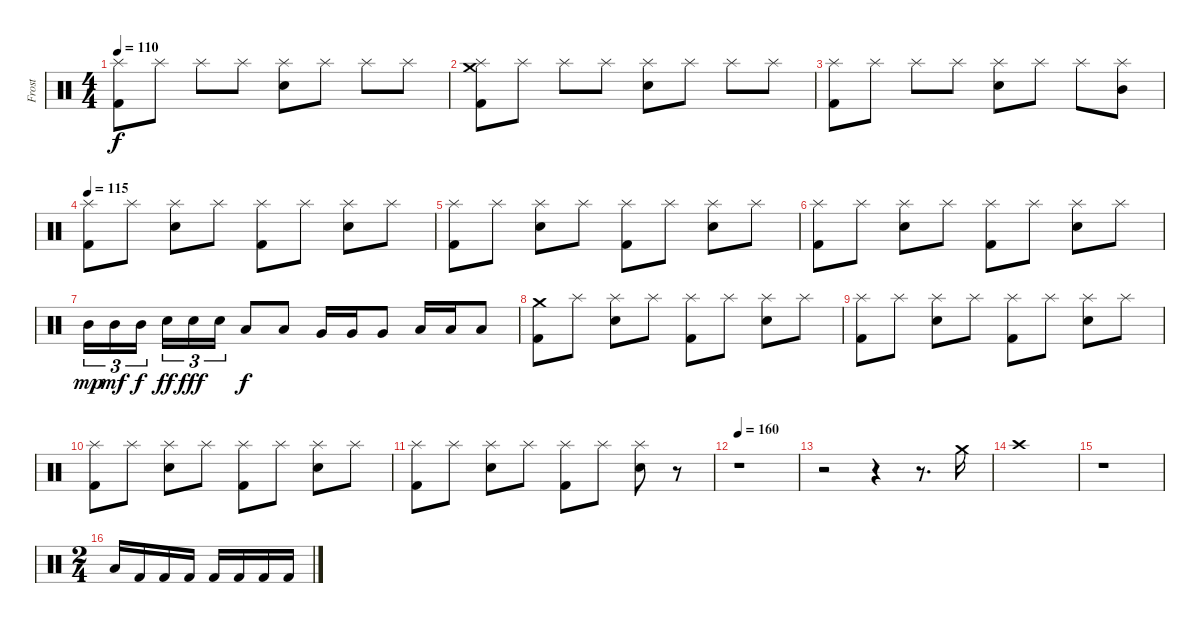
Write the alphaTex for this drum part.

\track ("Frost" "Frost") {instrument percussion}
\staff {score}
\articulation defaults
\ts (4 4)
\tempo 110
\clef neutral
\ks c
("Kick (hit) 2" "Splash (hit)").8{dy f} "Splash (hit)".8 "Splash (hit)".8 "Splash (hit)".8 ("Snare (hit) 2" "Splash (hit)").8 "Splash (hit)".8 "Splash (hit)".8 "Splash (hit)".8 |
("Kick (hit) 2" "Crash medium (hit)" "Splash (hit)").8 "Splash (hit)".8 "Splash (hit)".8 "Splash (hit)".8 ("Snare (hit) 2" "Splash (hit)").8 "Splash (hit)".8 "Splash (hit)".8 "Splash (hit)".8 |
("Kick (hit) 2" "Splash (hit)").8 "Splash (hit)".8 "Splash (hit)".8 "Splash (hit)".8 ("Snare (hit) 2" "Splash (hit)").8 "Splash (hit)".8 "Splash (hit)".8 ("Mid Tom (hit)" "Splash (hit)").8 |
\tempo 115
("Kick (hit) 2" "Splash (hit)").8 "Splash (hit)".8 ("Snare (hit) 2" "Splash (hit)").8 "Splash (hit)".8 ("Kick (hit) 2" "Splash (hit)").8 "Splash (hit)".8 ("Snare (hit) 2" "Splash (hit)").8 "Splash (hit)".8 |
("Kick (hit) 2" "Splash (hit)").8 "Splash (hit)".8 ("Snare (hit) 2" "Splash (hit)").8 "Splash (hit)".8 ("Kick (hit) 2" "Splash (hit)").8 "Splash (hit)".8 ("Snare (hit) 2" "Splash (hit)").8 "Splash (hit)".8 |
("Kick (hit) 2" "Splash (hit)").8 "Splash (hit)".8 ("Snare (hit) 2" "Splash (hit)").8 "Splash (hit)".8 ("Kick (hit) 2" "Splash (hit)").8 "Splash (hit)".8 ("Snare (hit) 2" "Splash (hit)").8 "Splash (hit)".8 |
"Mid Tom (hit)".16{tu (3 2) dy mp} "Mid Tom (hit)".16{tu (3 2) dy mf} "Mid Tom (hit)".16{tu (3 2) dy f} "Snare (hit) 2".16{tu (3 2) dy ff} "Snare (hit) 2".16{tu (3 2) dy fff} "Snare (hit) 2".16{tu (3 2)} "Low Tom (hit)".8{dy f} "Low Tom (hit)".8 "Very Low Tom (hit)".16 "Very Low Tom (hit)".16 "Very Low Tom (hit)".8 "Low Floor Tom (hit)".16 "Low Floor Tom (hit)".16 "Low Floor Tom (hit)".8 |
("Kick (hit) 2" "Crash medium (hit)").8 "Splash (hit)".8 ("Snare (hit) 2" "Splash (hit)").8 "Splash (hit)".8 ("Kick (hit) 2" "Splash (hit)").8 "Splash (hit)".8 ("Snare (hit) 2" "Splash (hit)").8 "Splash (hit)".8 |
("Kick (hit) 2" "Splash (hit)").8 "Splash (hit)".8 ("Snare (hit) 2" "Splash (hit)").8 "Splash (hit)".8 ("Kick (hit) 2" "Splash (hit)").8 "Splash (hit)".8 ("Snare (hit) 2" "Splash (hit)").8 "Splash (hit)".8 |
("Kick (hit) 2" "Splash (hit)").8 "Splash (hit)".8 ("Snare (hit) 2" "Splash (hit)").8 "Splash (hit)".8 ("Kick (hit) 2" "Splash (hit)").8 "Splash (hit)".8 ("Snare (hit) 2" "Splash (hit)").8 "Splash (hit)".8 |
("Kick (hit) 2" "Splash (hit)").8 "Splash (hit)".8 ("Snare (hit) 2" "Splash (hit)").8 "Splash (hit)".8 ("Kick (hit) 2" "Splash (hit)").8 "Splash (hit)".8 ("Snare (hit) 2" "Splash (hit)").8 r.8 |
\tempo 160
r.1 |
r.2 r.4 r.8{d} "Crash medium (hit)".16 |
"Crash high (hit)".1 |
r.1 |
\ts (2 4)
"Low Tom (hit)".16 "Kick (hit) 2".16 "Kick (hit) 2".16 "Kick (hit) 2".16 "Kick (hit) 2".16 "Kick (hit) 2".16 "Kick (hit) 2".16 "Kick (hit) 2".16
